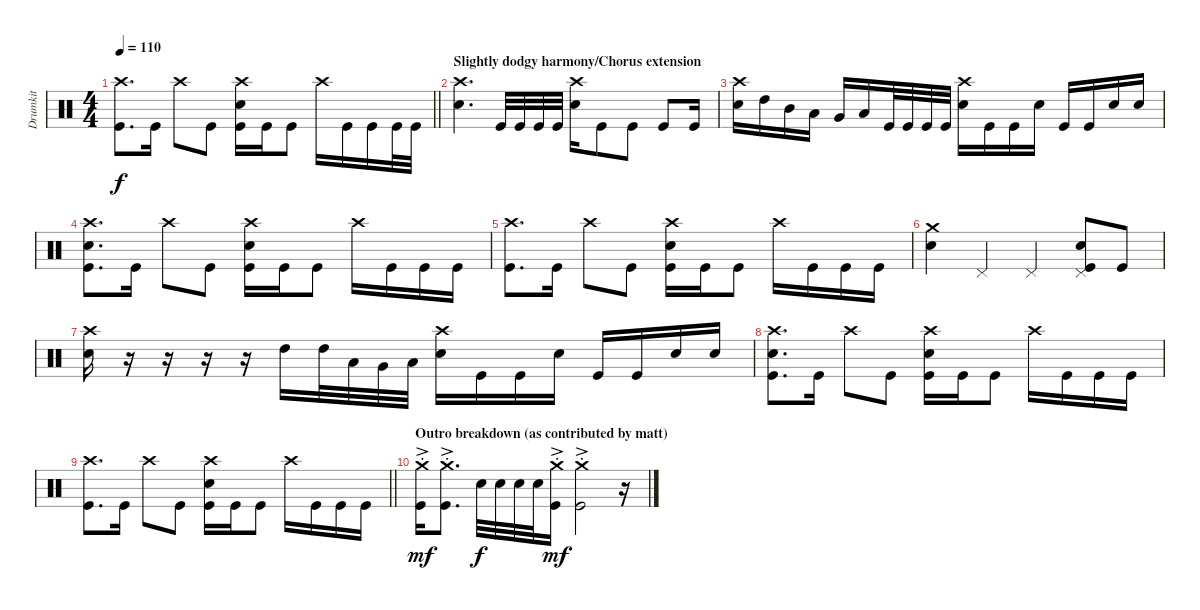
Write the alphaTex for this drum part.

\track ("Drumkit" "Drumkit") {instrument percussion}
\staff {score}
\articulation defaults
\ts (4 4)
\tempo 110
\clef neutral
\barLineRight lightlight
\ks c
("Crash high (hit)" "Kick (hit)").8{d dy f} "Kick (hit)".16 "Crash high (hit)".8 "Kick (hit)".8 ("Crash high (hit)" "Snare (hit) 2" "Kick (hit)").16 "Kick (hit)".16 "Kick (hit)".8 "Crash high (hit)".16 "Kick (hit)".16 "Kick (hit)".16 "Kick (hit)".32 "Kick (hit)".32 |
\section ("" "Slightly dodgy harmony/Chorus extension")
("Crash high (hit)" "Snare (hit) 2").4{d} "Kick (hit)".32 "Kick (hit)".32 "Kick (hit)".32 "Kick (hit)".32 ("Crash high (hit)" "Snare (hit) 2").16 "Kick (hit)".8 "Kick (hit)".8 "Kick (hit)".8 "Kick (hit)".16 |
("Crash high (hit)" "Snare (hit) 2").16 "High Tom (hit)".16 "Mid Tom (hit)".16 "Low Tom (hit)".16 "Very Low Tom (hit)".16 "Low Floor Tom (hit)".16 "Kick (hit)".32 "Kick (hit)".32 "Kick (hit)".32 "Kick (hit)".32 ("Crash high (hit)" "Snare (hit) 2").16 "Kick (hit)".16 "Kick (hit)".16 "Snare (hit) 2".16 "Kick (hit)".16 "Kick (hit)".16 "Snare (hit) 2".16 "Snare (hit) 2".16 |
("Crash high (hit)" "Snare (hit) 2" "Kick (hit)").8{d} "Kick (hit)".16 "Crash high (hit)".8 "Kick (hit)".8 ("Crash high (hit)" "Snare (hit) 2" "Kick (hit)").16 "Kick (hit)".16 "Kick (hit)".8 "Crash high (hit)".16 "Kick (hit)".16 "Kick (hit)".16 "Kick (hit)".16 |
("Crash high (hit)" "Kick (hit)").8{d} "Kick (hit)".16 "Crash high (hit)".8 "Kick (hit)".8 ("Crash high (hit)" "Snare (hit) 2" "Kick (hit)").16 "Kick (hit)".16 "Kick (hit)".8 "Crash high (hit)".16 "Kick (hit)".16 "Kick (hit)".16 "Kick (hit)".16 |
("Crash medium (hit)" "Snare (hit) 2").4 "Pedal Hi-Hat (hit)".4 "Pedal Hi-Hat (hit)".4 ("Pedal Hi-Hat (hit)" "Snare (hit) 2" "Kick (hit)").8 "Kick (hit)".8 |
("Crash high (hit)" "Snare (hit) 2").16 r.16 r.16 r.16 r.16 "High Tom (hit)".16 "High Tom (hit)".32 "Low Tom (hit)".32 "Very Low Tom (hit)".32 "Low Floor Tom (hit)".32 ("Crash high (hit)" "Snare (hit) 2").16 "Kick (hit)".16 "Kick (hit)".16 "Snare (hit) 2".16 "Kick (hit)".16 "Kick (hit)".16 "Snare (hit) 2".16 "Snare (hit) 2".16 |
("Crash high (hit)" "Snare (hit) 2" "Kick (hit)").8{d} "Kick (hit)".16 "Crash high (hit)".8 "Kick (hit)".8 ("Crash high (hit)" "Snare (hit) 2" "Kick (hit)").16 "Kick (hit)".16 "Kick (hit)".8 "Crash high (hit)".16 "Kick (hit)".16 "Kick (hit)".16 "Kick (hit)".16 |
\barLineRight lightlight
("Crash high (hit)" "Kick (hit)").8{d} "Kick (hit)".16 "Crash high (hit)".8 "Kick (hit)".8 ("Crash high (hit)" "Snare (hit) 2" "Kick (hit)").16 "Kick (hit)".16 "Kick (hit)".8 "Crash high (hit)".16 "Kick (hit)".16 "Kick (hit)".16 "Kick (hit)".16 |
\section ("" "Outro breakdown (as contributed by matt)")
("Kick (hit)"{ac st} "Crash medium (hit)"{ac st}).16{dy mf} ("Kick (hit)"{ac st} "Crash medium (hit)"{ac st}).8{d} "Snare (hit) 2".32{dy f} "Snare (hit) 2".32 "Snare (hit) 2".32 "Snare (hit) 2".32 ("Kick (hit)"{ac st} "Crash medium (hit)"{ac st}).16{dy mf} ("Kick (hit)"{ac st} "Crash medium (hit)"{ac st}).2 r.16
